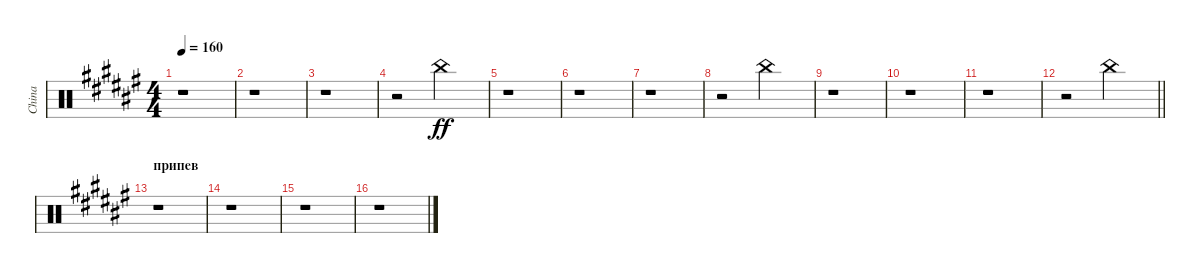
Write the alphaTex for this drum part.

\track ("China" "China") {instrument percussion}
\staff {score}
\articulation defaults
\ts (4 4)
\tempo 160
\clef neutral
\ks d#minor
r.1{dy ff} |
r.1 |
r.1 |
r.2 "China (hit)".2 |
r.1 |
r.1 |
r.1 |
r.2 "China (hit)".2 |
r.1 |
r.1 |
r.1 |
\barLineRight lightlight
r.2 "China (hit)".2 |
\section ("" "припев")
r.1 |
r.1 |
r.1 |
r.1
